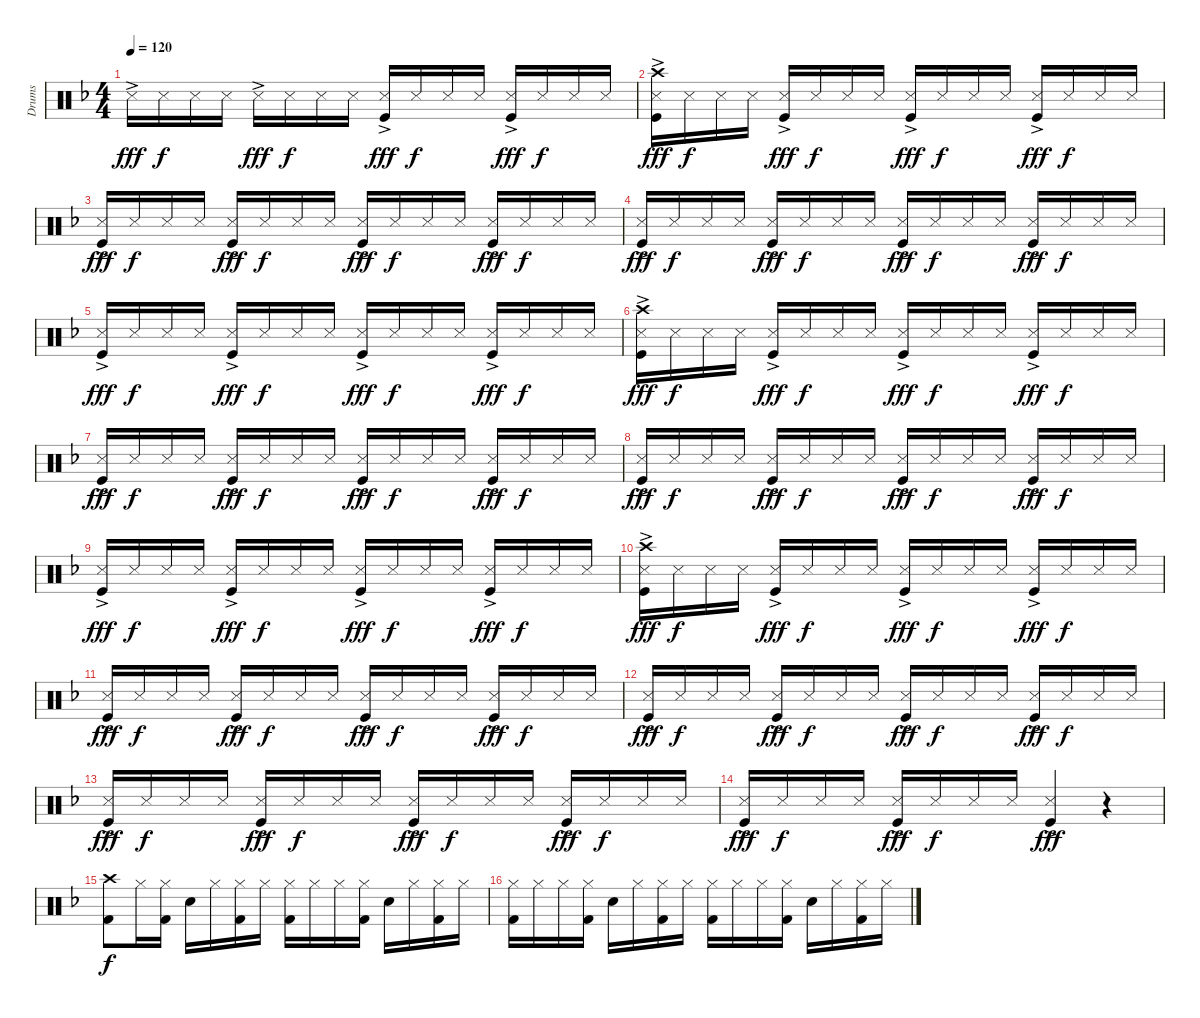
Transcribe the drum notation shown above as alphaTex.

\track ("Drums" "Drums") {instrument percussion}
\staff {score}
\articulation defaults
\ts (4 4)
\tempo 120
\clef neutral
\ks dminor "Snare (side stick) 3"{ac}.16{dy fff} "Snare (side stick) 3".16{dy f} "Snare (side stick) 3".16 "Snare (side stick) 3".16 "Snare (side stick) 3"{ac}.16{dy fff} "Snare (side stick) 3".16{dy f} "Snare (side stick) 3".16 "Snare (side stick) 3".16
("Kick (hit)" "Snare (side stick) 3"{ac}).16{dy fff} "Snare (side stick) 3".16{dy f} "Snare (side stick) 3".16 "Snare (side stick) 3".16 ("Kick (hit)" "Snare (side stick) 3"{ac}).16{dy fff} "Snare (side stick) 3".16{dy f} "Snare (side stick) 3".16 "Snare (side stick) 3".16 |
("Kick (hit)" "Snare (side stick) 3"{ac} "Crash high (hit)").16{dy fff} "Snare (side stick) 3".16{dy f} "Snare (side stick) 3".16 "Snare (side stick) 3".16 ("Kick (hit)" "Snare (side stick) 3"{ac}).16{dy fff} "Snare (side stick) 3".16{dy f} "Snare (side stick) 3".16 "Snare (side stick) 3".16 ("Kick (hit)" "Snare (side stick) 3"{ac}).16{dy fff} "Snare (side stick) 3".16{dy f} "Snare (side stick) 3".16 "Snare (side stick) 3".16 ("Kick (hit)" "Snare (side stick) 3"{ac}).16{dy fff} "Snare (side stick) 3".16{dy f} "Snare (side stick) 3".16 "Snare (side stick) 3".16 |
("Kick (hit)" "Snare (side stick) 3"{ac}).16{dy fff} "Snare (side stick) 3".16{dy f} "Snare (side stick) 3".16 "Snare (side stick) 3".16 ("Kick (hit)" "Snare (side stick) 3"{ac}).16{dy fff} "Snare (side stick) 3".16{dy f} "Snare (side stick) 3".16 "Snare (side stick) 3".16 ("Kick (hit)" "Snare (side stick) 3"{ac}).16{dy fff} "Snare (side stick) 3".16{dy f} "Snare (side stick) 3".16 "Snare (side stick) 3".16 ("Kick (hit)" "Snare (side stick) 3"{ac}).16{dy fff} "Snare (side stick) 3".16{dy f} "Snare (side stick) 3".16 "Snare (side stick) 3".16 |
("Kick (hit)" "Snare (side stick) 3"{ac}).16{dy fff} "Snare (side stick) 3".16{dy f} "Snare (side stick) 3".16 "Snare (side stick) 3".16 ("Kick (hit)" "Snare (side stick) 3"{ac}).16{dy fff} "Snare (side stick) 3".16{dy f} "Snare (side stick) 3".16 "Snare (side stick) 3".16 ("Kick (hit)" "Snare (side stick) 3"{ac}).16{dy fff} "Snare (side stick) 3".16{dy f} "Snare (side stick) 3".16 "Snare (side stick) 3".16 ("Kick (hit)" "Snare (side stick) 3"{ac}).16{dy fff} "Snare (side stick) 3".16{dy f} "Snare (side stick) 3".16 "Snare (side stick) 3".16 |
("Kick (hit)" "Snare (side stick) 3"{ac}).16{dy fff} "Snare (side stick) 3".16{dy f} "Snare (side stick) 3".16 "Snare (side stick) 3".16 ("Kick (hit)" "Snare (side stick) 3"{ac}).16{dy fff} "Snare (side stick) 3".16{dy f} "Snare (side stick) 3".16 "Snare (side stick) 3".16 ("Kick (hit)" "Snare (side stick) 3"{ac}).16{dy fff} "Snare (side stick) 3".16{dy f} "Snare (side stick) 3".16 "Snare (side stick) 3".16 ("Kick (hit)" "Snare (side stick) 3"{ac}).16{dy fff} "Snare (side stick) 3".16{dy f} "Snare (side stick) 3".16 "Snare (side stick) 3".16 |
("Kick (hit)" "Snare (side stick) 3"{ac} "Crash high (hit)").16{dy fff} "Snare (side stick) 3".16{dy f} "Snare (side stick) 3".16 "Snare (side stick) 3".16 ("Kick (hit)" "Snare (side stick) 3"{ac}).16{dy fff} "Snare (side stick) 3".16{dy f} "Snare (side stick) 3".16 "Snare (side stick) 3".16 ("Kick (hit)" "Snare (side stick) 3"{ac}).16{dy fff} "Snare (side stick) 3".16{dy f} "Snare (side stick) 3".16 "Snare (side stick) 3".16 ("Kick (hit)" "Snare (side stick) 3"{ac}).16{dy fff} "Snare (side stick) 3".16{dy f} "Snare (side stick) 3".16 "Snare (side stick) 3".16 |
("Kick (hit)" "Snare (side stick) 3"{ac}).16{dy fff} "Snare (side stick) 3".16{dy f} "Snare (side stick) 3".16 "Snare (side stick) 3".16 ("Kick (hit)" "Snare (side stick) 3"{ac}).16{dy fff} "Snare (side stick) 3".16{dy f} "Snare (side stick) 3".16 "Snare (side stick) 3".16 ("Kick (hit)" "Snare (side stick) 3"{ac}).16{dy fff} "Snare (side stick) 3".16{dy f} "Snare (side stick) 3".16 "Snare (side stick) 3".16 ("Kick (hit)" "Snare (side stick) 3"{ac}).16{dy fff} "Snare (side stick) 3".16{dy f} "Snare (side stick) 3".16 "Snare (side stick) 3".16 |
("Kick (hit)" "Snare (side stick) 3"{ac}).16{dy fff} "Snare (side stick) 3".16{dy f} "Snare (side stick) 3".16 "Snare (side stick) 3".16 ("Kick (hit)" "Snare (side stick) 3"{ac}).16{dy fff} "Snare (side stick) 3".16{dy f} "Snare (side stick) 3".16 "Snare (side stick) 3".16 ("Kick (hit)" "Snare (side stick) 3"{ac}).16{dy fff} "Snare (side stick) 3".16{dy f} "Snare (side stick) 3".16 "Snare (side stick) 3".16 ("Kick (hit)" "Snare (side stick) 3"{ac}).16{dy fff} "Snare (side stick) 3".16{dy f} "Snare (side stick) 3".16 "Snare (side stick) 3".16 |
("Kick (hit)" "Snare (side stick) 3"{ac}).16{dy fff} "Snare (side stick) 3".16{dy f} "Snare (side stick) 3".16 "Snare (side stick) 3".16 ("Kick (hit)" "Snare (side stick) 3"{ac}).16{dy fff} "Snare (side stick) 3".16{dy f} "Snare (side stick) 3".16 "Snare (side stick) 3".16 ("Kick (hit)" "Snare (side stick) 3"{ac}).16{dy fff} "Snare (side stick) 3".16{dy f} "Snare (side stick) 3".16 "Snare (side stick) 3".16 ("Kick (hit)" "Snare (side stick) 3"{ac}).16{dy fff} "Snare (side stick) 3".16{dy f} "Snare (side stick) 3".16 "Snare (side stick) 3".16 |
("Kick (hit)" "Snare (side stick) 3"{ac} "Crash high (hit)").16{dy fff} "Snare (side stick) 3".16{dy f} "Snare (side stick) 3".16 "Snare (side stick) 3".16 ("Kick (hit)" "Snare (side stick) 3"{ac}).16{dy fff} "Snare (side stick) 3".16{dy f} "Snare (side stick) 3".16 "Snare (side stick) 3".16 ("Kick (hit)" "Snare (side stick) 3"{ac}).16{dy fff} "Snare (side stick) 3".16{dy f} "Snare (side stick) 3".16 "Snare (side stick) 3".16 ("Kick (hit)" "Snare (side stick) 3"{ac}).16{dy fff} "Snare (side stick) 3".16{dy f} "Snare (side stick) 3".16 "Snare (side stick) 3".16 |
("Kick (hit)" "Snare (side stick) 3"{ac}).16{dy fff} "Snare (side stick) 3".16{dy f} "Snare (side stick) 3".16 "Snare (side stick) 3".16 ("Kick (hit)" "Snare (side stick) 3"{ac}).16{dy fff} "Snare (side stick) 3".16{dy f} "Snare (side stick) 3".16 "Snare (side stick) 3".16 ("Kick (hit)" "Snare (side stick) 3"{ac}).16{dy fff} "Snare (side stick) 3".16{dy f} "Snare (side stick) 3".16 "Snare (side stick) 3".16 ("Kick (hit)" "Snare (side stick) 3"{ac}).16{dy fff} "Snare (side stick) 3".16{dy f} "Snare (side stick) 3".16 "Snare (side stick) 3".16 |
("Kick (hit)" "Snare (side stick) 3"{ac}).16{dy fff} "Snare (side stick) 3".16{dy f} "Snare (side stick) 3".16 "Snare (side stick) 3".16 ("Kick (hit)" "Snare (side stick) 3"{ac}).16{dy fff} "Snare (side stick) 3".16{dy f} "Snare (side stick) 3".16 "Snare (side stick) 3".16 ("Kick (hit)" "Snare (side stick) 3"{ac}).16{dy fff} "Snare (side stick) 3".16{dy f} "Snare (side stick) 3".16 "Snare (side stick) 3".16 ("Kick (hit)" "Snare (side stick) 3"{ac}).16{dy fff} "Snare (side stick) 3".16{dy f} "Snare (side stick) 3".16 "Snare (side stick) 3".16 |
("Kick (hit)" "Snare (side stick) 3"{ac}).16{dy fff} "Snare (side stick) 3".16{dy f} "Snare (side stick) 3".16 "Snare (side stick) 3".16 ("Kick (hit)" "Snare (side stick) 3"{ac}).16{dy fff} "Snare (side stick) 3".16{dy f} "Snare (side stick) 3".16 "Snare (side stick) 3".16 ("Kick (hit)" "Snare (side stick) 3"{ac}).16{dy fff} "Snare (side stick) 3".16{dy f} "Snare (side stick) 3".16 "Snare (side stick) 3".16 ("Kick (hit)" "Snare (side stick) 3"{ac}).16{dy fff} "Snare (side stick) 3".16{dy f} "Snare (side stick) 3".16 "Snare (side stick) 3".16 |
("Kick (hit)" "Snare (side stick) 3"{ac}).16{dy fff} "Snare (side stick) 3".16{dy f} "Snare (side stick) 3".16 "Snare (side stick) 3".16 ("Kick (hit)" "Snare (side stick) 3"{ac}).16{dy fff} "Snare (side stick) 3".16{dy f} "Snare (side stick) 3".16 "Snare (side stick) 3".16 ("Kick (hit)" "Snare (side stick) 3"{ac}).4{dy fff} r.4 |
("Kick (hit) 2" "Crash high (hit)").8{dy f} "Hi-Hat (closed)".16 ("Kick (hit) 2" "Hi-Hat (closed)").16 "Snare (hit) 2".16 "Hi-Hat (closed)".16 ("Kick (hit) 2" "Hi-Hat (closed)").16 "Hi-Hat (closed)".16 ("Kick (hit) 2" "Hi-Hat (closed)").16 "Hi-Hat (closed)".16 "Hi-Hat (closed)".16 ("Kick (hit) 2" "Hi-Hat (closed)").16 "Snare (hit) 2".16 "Hi-Hat (closed)".16 ("Kick (hit) 2" "Hi-Hat (closed)").16 "Hi-Hat (closed)".16 |
("Kick (hit) 2" "Hi-Hat (closed)").16 "Hi-Hat (closed)".16 "Hi-Hat (closed)".16 ("Kick (hit) 2" "Hi-Hat (closed)").16 "Snare (hit) 2".16 "Hi-Hat (closed)".16 ("Kick (hit) 2" "Hi-Hat (closed)").16 "Hi-Hat (closed)".16 ("Kick (hit) 2" "Hi-Hat (closed)").16 "Hi-Hat (closed)".16 "Hi-Hat (closed)".16 ("Kick (hit) 2" "Hi-Hat (closed)").16 "Snare (hit) 2".16 "Hi-Hat (closed)".16 ("Kick (hit) 2" "Hi-Hat (closed)").16 "Hi-Hat (closed)".16
